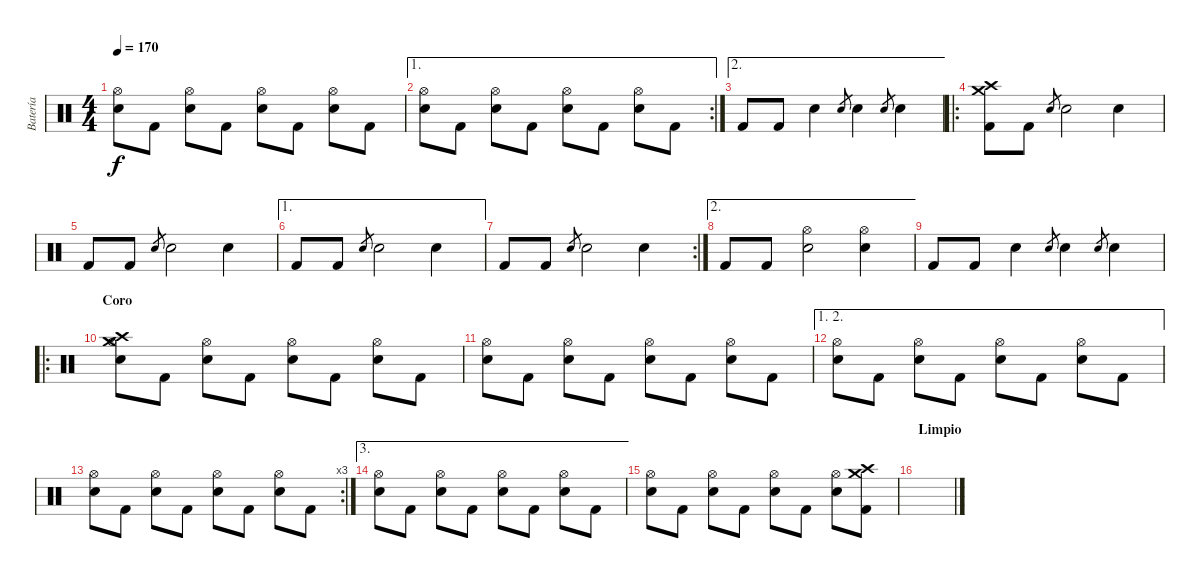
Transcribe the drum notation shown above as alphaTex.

\track ("Batería" "Batería") {instrument percussion}
\staff {score}
\articulation defaults
\ts (4 4)
\tempo 170
\clef neutral
\ks c
("Snare (hit) 2" "Hi-Hat (open)").8{dy f} "Kick (hit) 2".8 ("Snare (hit) 2" "Hi-Hat (open)").8 "Kick (hit) 2".8 ("Snare (hit) 2" "Hi-Hat (open)").8 "Kick (hit) 2".8 ("Snare (hit) 2" "Hi-Hat (open)").8 "Kick (hit) 2".8 |
\ae 1
\rc 2
("Snare (hit) 2" "Hi-Hat (open)").8 "Kick (hit) 2".8 ("Snare (hit) 2" "Hi-Hat (open)").8 "Kick (hit) 2".8 ("Snare (hit) 2" "Hi-Hat (open)").8 "Kick (hit) 2".8 ("Snare (hit) 2" "Hi-Hat (open)").8 "Kick (hit) 2".8 |
\ae 2 "Kick (hit) 2".8 "Kick (hit) 2".8 "Electric Snare (hit)".4 "Electric Snare (hit)".8{gr} "Snare (hit) 2".4 "Electric Snare (hit)".8{gr} "Snare (hit) 2".4
|
\ro
("Kick (hit) 2" "Crash medium (hit)" "Crash high (hit)").8 "Kick (hit) 2".8 "Electric Snare (hit)".8{gr} "Snare (hit) 2".2 "Snare (hit) 2".4 |
"Kick (hit) 2".8 "Kick (hit) 2".8 "Electric Snare (hit)".8{gr} "Snare (hit) 2".2 "Snare (hit) 2".4 |
\ae 1 "Kick (hit) 2".8 "Kick (hit) 2".8 "Electric Snare (hit)".8{gr} "Snare (hit) 2".2 "Snare (hit) 2".4
|
\rc 2 "Kick (hit) 2".8 "Kick (hit) 2".8 "Electric Snare (hit)".8{gr} "Snare (hit) 2".2 "Snare (hit) 2".4
|
\ae 2 "Kick (hit) 2".8 "Kick (hit) 2".8
("Hi-Hat (open)" "Snare (hit) 2").2 ("Hi-Hat (open)" "Snare (hit) 2").4 |
"Kick (hit) 2".8 "Kick (hit) 2".8 "Electric Snare (hit)".4 "Electric Snare (hit)".8{gr} "Snare (hit) 2".4 "Electric Snare (hit)".8{gr} "Snare (hit) 2".4 |
\ro
\section ("" "Coro")
("Crash high (hit)" "Crash medium (hit)" "Snare (hit) 2" "Hi-Hat (open)").8 "Kick (hit) 2".8 ("Snare (hit) 2" "Hi-Hat (open)").8 "Kick (hit) 2".8 ("Snare (hit) 2" "Hi-Hat (open)").8 "Kick (hit) 2".8 ("Snare (hit) 2" "Hi-Hat (open)").8 "Kick (hit) 2".8 |
("Snare (hit) 2" "Hi-Hat (open)").8 "Kick (hit) 2".8 ("Snare (hit) 2" "Hi-Hat (open)").8 "Kick (hit) 2".8 ("Snare (hit) 2" "Hi-Hat (open)").8 "Kick (hit) 2".8 ("Snare (hit) 2" "Hi-Hat (open)").8 "Kick (hit) 2".8 |
\ae (1 2)
("Snare (hit) 2" "Hi-Hat (open)").8 "Kick (hit) 2".8 ("Snare (hit) 2" "Hi-Hat (open)").8 "Kick (hit) 2".8 ("Snare (hit) 2" "Hi-Hat (open)").8 "Kick (hit) 2".8 ("Snare (hit) 2" "Hi-Hat (open)").8 "Kick (hit) 2".8 |
\rc 3
("Snare (hit) 2" "Hi-Hat (open)").8 "Kick (hit) 2".8 ("Snare (hit) 2" "Hi-Hat (open)").8 "Kick (hit) 2".8 ("Snare (hit) 2" "Hi-Hat (open)").8 "Kick (hit) 2".8 ("Snare (hit) 2" "Hi-Hat (open)").8 "Kick (hit) 2".8 |
\ae 3
("Snare (hit) 2" "Hi-Hat (open)").8 "Kick (hit) 2".8 ("Snare (hit) 2" "Hi-Hat (open)").8 "Kick (hit) 2".8 ("Snare (hit) 2" "Hi-Hat (open)").8 "Kick (hit) 2".8 ("Snare (hit) 2" "Hi-Hat (open)").8 "Kick (hit) 2".8 |
("Snare (hit) 2" "Hi-Hat (open)").8 "Kick (hit) 2".8 ("Snare (hit) 2" "Hi-Hat (open)").8 "Kick (hit) 2".8 ("Snare (hit) 2" "Hi-Hat (open)").8 "Kick (hit) 2".8 ("Snare (hit) 2" "Hi-Hat (open)").8 ("Crash high (hit)" "Crash medium (hit)" "Kick (hit) 2").8 |
\section ("" "Limpio")
